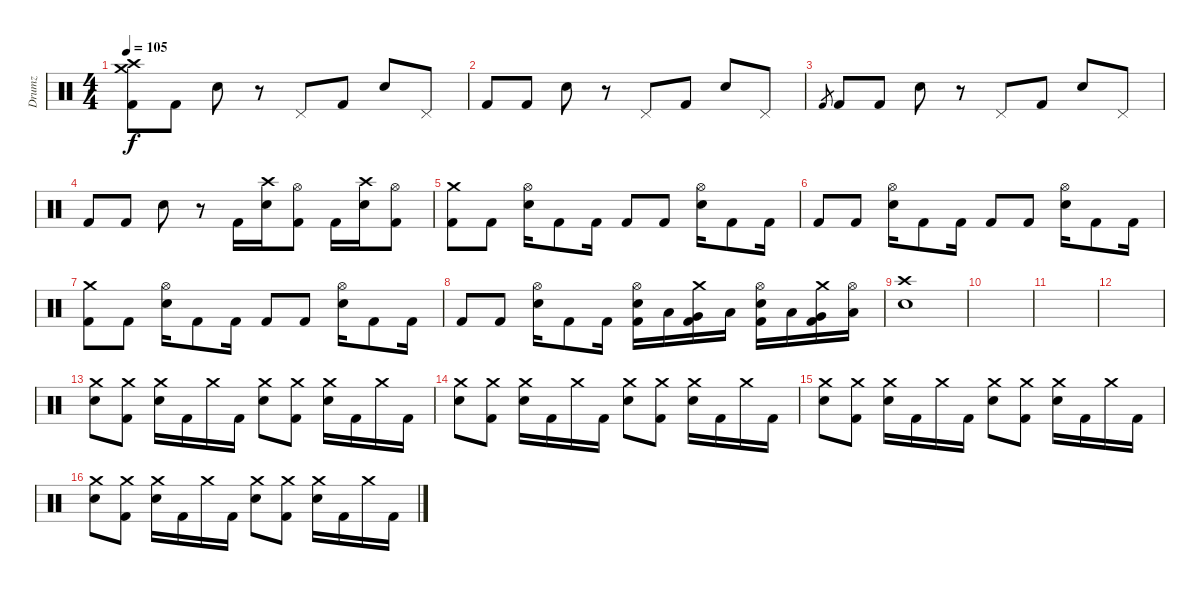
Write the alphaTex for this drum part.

\track ("Drumz" "Drumz") {instrument percussion}
\staff {score}
\articulation defaults
\ts (4 4)
\tempo 105
\clef neutral
\ks c
("Crash medium (hit)" "Crash high (hit)" "Kick (hit) 2").8{dy f} "Kick (hit) 2".8 "Electric Snare (hit)".8 r.8 "Pedal Hi-Hat (hit)".8 "Kick (hit) 2".8 "Electric Snare (hit)".8 "Pedal Hi-Hat (hit)".8 |
"Kick (hit) 2".8 "Kick (hit) 2".8 "Electric Snare (hit)".8 r.8 "Pedal Hi-Hat (hit)".8 "Kick (hit) 2".8 "Electric Snare (hit)".8 "Pedal Hi-Hat (hit)".8 |
"Kick (hit) 2".8{gr} "Kick (hit) 2".8 "Kick (hit) 2".8 "Electric Snare (hit)".8 r.8 "Pedal Hi-Hat (hit)".8 "Kick (hit) 2".8 "Electric Snare (hit)".8 "Pedal Hi-Hat (hit)".8 |
"Kick (hit) 2".8 "Kick (hit) 2".8 "Electric Snare (hit)".8 r.8 "Kick (hit) 2".16 ("Crash high (hit)" "Electric Snare (hit)").16 ("Hi-Hat (open)" "Kick (hit) 2").8 "Kick (hit) 2".16 ("Crash high (hit)" "Electric Snare (hit)").16 ("Hi-Hat (open)" "Kick (hit) 2").8 |
("Crash medium (hit)" "Kick (hit) 2").8 "Kick (hit) 2".8 ("Hi-Hat (open)" "Electric Snare (hit)").16 "Kick (hit) 2".8 "Kick (hit) 2".16 "Kick (hit) 2".8 "Kick (hit) 2".8 ("Hi-Hat (open)" "Electric Snare (hit)").16 "Kick (hit) 2".8 "Kick (hit) 2".16 |
"Kick (hit) 2".8 "Kick (hit) 2".8 ("Hi-Hat (open)" "Electric Snare (hit)").16 "Kick (hit) 2".8 "Kick (hit) 2".16 "Kick (hit) 2".8 "Kick (hit) 2".8 ("Hi-Hat (open)" "Electric Snare (hit)").16 "Kick (hit) 2".8 "Kick (hit) 2".16 |
("Crash medium (hit)" "Kick (hit) 2").8 "Kick (hit) 2".8 ("Hi-Hat (open)" "Electric Snare (hit)").16 "Kick (hit) 2".8 "Kick (hit) 2".16 "Kick (hit) 2".8 "Kick (hit) 2".8 ("Hi-Hat (open)" "Electric Snare (hit)").16 "Kick (hit) 2".8 "Kick (hit) 2".16 |
"Kick (hit) 2".8 "Kick (hit) 2".8 ("Hi-Hat (open)" "Electric Snare (hit)").16 "Kick (hit) 2".8 "Kick (hit) 2".16 ("Hi-Hat (open)" "Electric Snare (hit)" "Kick (hit) 2").16 "Low Tom (hit)".16 ("Crash medium (hit)" "Very Low Tom (hit)" "Kick (hit) 2").16 "Low Floor Tom (hit)".16 ("Hi-Hat (open)" "Electric Snare (hit)" "Kick (hit) 2").16 "Low Tom (hit)".16 ("Crash medium (hit)" "Very Low Tom (hit)" "Kick (hit) 2").16 ("Hi-Hat (open)" "Low Floor Tom (hit)").16 |
("Crash high (hit)" "Electric Snare (hit)").1 |
|
|
|
("Crash medium (hit)" "Electric Snare (hit)").8 ("Crash medium (hit)" "Kick (hit) 2").8 ("Crash medium (hit)" "Electric Snare (hit)").16 "Kick (hit) 2".16 "Crash medium (hit)".16 "Kick (hit) 2".16 ("Crash medium (hit)" "Electric Snare (hit)").8 ("Crash medium (hit)" "Kick (hit) 2").8 ("Crash medium (hit)" "Electric Snare (hit)").16 "Kick (hit) 2".16 "Crash medium (hit)".16 "Kick (hit) 2".16 |
("Crash medium (hit)" "Electric Snare (hit)").8 ("Crash medium (hit)" "Kick (hit) 2").8 ("Crash medium (hit)" "Electric Snare (hit)").16 "Kick (hit) 2".16 "Crash medium (hit)".16 "Kick (hit) 2".16 ("Crash medium (hit)" "Electric Snare (hit)").8 ("Crash medium (hit)" "Kick (hit) 2").8 ("Crash medium (hit)" "Electric Snare (hit)").16 "Kick (hit) 2".16 "Crash medium (hit)".16 "Kick (hit) 2".16 |
("Crash medium (hit)" "Electric Snare (hit)").8 ("Crash medium (hit)" "Kick (hit) 2").8 ("Crash medium (hit)" "Electric Snare (hit)").16 "Kick (hit) 2".16 "Crash medium (hit)".16 "Kick (hit) 2".16 ("Crash medium (hit)" "Electric Snare (hit)").8 ("Crash medium (hit)" "Kick (hit) 2").8 ("Crash medium (hit)" "Electric Snare (hit)").16 "Kick (hit) 2".16 "Crash medium (hit)".16 "Kick (hit) 2".16 |
("Crash medium (hit)" "Electric Snare (hit)").8 ("Crash medium (hit)" "Kick (hit) 2").8 ("Crash medium (hit)" "Electric Snare (hit)").16 "Kick (hit) 2".16 "Crash medium (hit)".16 "Kick (hit) 2".16 ("Crash medium (hit)" "Electric Snare (hit)").8 ("Crash medium (hit)" "Kick (hit) 2").8 ("Crash medium (hit)" "Electric Snare (hit)").16 "Kick (hit) 2".16 "Crash medium (hit)".16 "Kick (hit) 2".16
